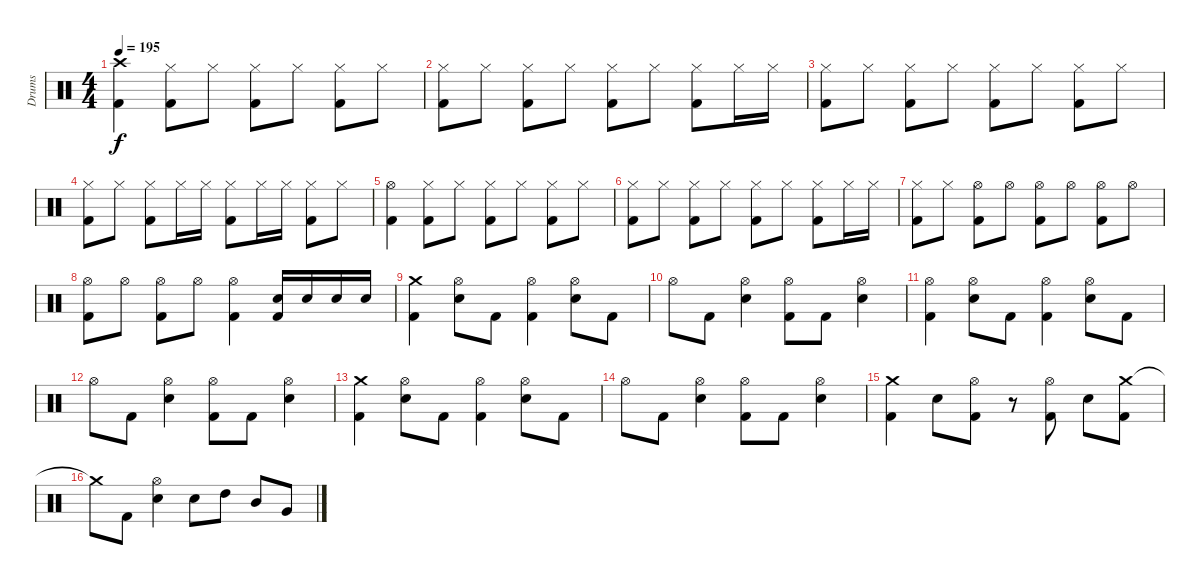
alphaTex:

\track ("Drums" "Drums") {instrument percussion}
\staff {score}
\articulation defaults
\ts (4 4)
\tempo 195
\clef neutral
\ks c
("Crash high (hit)" "Kick (hit) 2").4{dy f} ("Hi-Hat (closed)" "Kick (hit) 2").8 "Hi-Hat (closed)".8 ("Hi-Hat (closed)" "Kick (hit) 2").8 "Hi-Hat (closed)".8 ("Hi-Hat (closed)" "Kick (hit) 2").8 "Hi-Hat (closed)".8 |
("Hi-Hat (closed)" "Kick (hit) 2").8 "Hi-Hat (closed)".8 ("Hi-Hat (closed)" "Kick (hit) 2").8 "Hi-Hat (closed)".8 ("Hi-Hat (closed)" "Kick (hit) 2").8 "Hi-Hat (closed)".8 ("Hi-Hat (closed)" "Kick (hit) 2").8 "Hi-Hat (closed)".16 "Hi-Hat (closed)".16 |
("Hi-Hat (closed)" "Kick (hit) 2").8 "Hi-Hat (closed)".8 ("Hi-Hat (closed)" "Kick (hit) 2").8 "Hi-Hat (closed)".8 ("Hi-Hat (closed)" "Kick (hit) 2").8 "Hi-Hat (closed)".8 ("Hi-Hat (closed)" "Kick (hit) 2").8 "Hi-Hat (closed)".8 |
("Hi-Hat (closed)" "Kick (hit) 2").8 "Hi-Hat (closed)".8 ("Hi-Hat (closed)" "Kick (hit) 2").8 "Hi-Hat (closed)".16 "Hi-Hat (closed)".16 ("Hi-Hat (closed)" "Kick (hit) 2").8 "Hi-Hat (closed)".16 "Hi-Hat (closed)".16 ("Hi-Hat (closed)" "Kick (hit) 2").8 "Hi-Hat (closed)".8 |
("Hi-Hat (open)" "Kick (hit) 2").4 ("Hi-Hat (closed)" "Kick (hit) 2").8 "Hi-Hat (closed)".8 ("Hi-Hat (closed)" "Kick (hit) 2").8 "Hi-Hat (closed)".8 ("Hi-Hat (closed)" "Kick (hit) 2").8 "Hi-Hat (closed)".8 |
("Hi-Hat (closed)" "Kick (hit) 2").8 "Hi-Hat (closed)".8 ("Hi-Hat (closed)" "Kick (hit) 2").8 "Hi-Hat (closed)".8 ("Hi-Hat (closed)" "Kick (hit) 2").8 "Hi-Hat (closed)".8 ("Hi-Hat (closed)" "Kick (hit) 2").8 "Hi-Hat (closed)".16 "Hi-Hat (closed)".16 |
("Hi-Hat (closed)" "Kick (hit) 2").8 "Hi-Hat (closed)".8 ("Hi-Hat (open)" "Kick (hit) 2").8 "Hi-Hat (open)".8 ("Hi-Hat (open)" "Kick (hit) 2").8 "Hi-Hat (open)".8 ("Hi-Hat (open)" "Kick (hit) 2").8 "Hi-Hat (open)".8 |
("Hi-Hat (open)" "Kick (hit) 2").8 "Hi-Hat (open)".8 ("Hi-Hat (open)" "Kick (hit) 2").8 "Hi-Hat (open)".8 ("Hi-Hat (open)" "Kick (hit) 2").4 ("Snare (hit) 2" "Kick (hit) 2").16 "Snare (hit) 2".16 "Snare (hit) 2".16 "Snare (hit) 2".16 |
("Crash medium (hit)" "Kick (hit) 2").4 ("Hi-Hat (open)" "Snare (hit) 2").8 "Kick (hit) 2".8 ("Hi-Hat (open)" "Kick (hit) 2").4 ("Hi-Hat (open)" "Snare (hit) 2").8 "Kick (hit) 2".8 |
"Hi-Hat (open)".8 "Kick (hit) 2".8 ("Hi-Hat (open)" "Snare (hit) 2").4 ("Hi-Hat (open)" "Kick (hit) 2").8 "Kick (hit) 2".8 ("Hi-Hat (open)" "Snare (hit) 2").4 |
("Hi-Hat (open)" "Kick (hit) 2").4 ("Hi-Hat (open)" "Snare (hit) 2").8 "Kick (hit) 2".8 ("Hi-Hat (open)" "Kick (hit) 2").4 ("Hi-Hat (open)" "Snare (hit) 2").8 "Kick (hit) 2".8 |
"Hi-Hat (open)".8 "Kick (hit) 2".8 ("Hi-Hat (open)" "Snare (hit) 2").4 ("Hi-Hat (open)" "Kick (hit) 2").8 "Kick (hit) 2".8 ("Hi-Hat (open)" "Snare (hit) 2").4 |
("Crash medium (hit)" "Kick (hit) 2").4 ("Hi-Hat (open)" "Snare (hit) 2").8 "Kick (hit) 2".8 ("Hi-Hat (open)" "Kick (hit) 2").4 ("Hi-Hat (open)" "Snare (hit) 2").8 "Kick (hit) 2".8 |
"Hi-Hat (open)".8 "Kick (hit) 2".8 ("Hi-Hat (open)" "Snare (hit) 2").4 ("Hi-Hat (open)" "Kick (hit) 2").8 "Kick (hit) 2".8 ("Hi-Hat (open)" "Snare (hit) 2").4 |
("Crash medium (hit)" "Kick (hit) 2").4 "Snare (hit) 2".8 ("Hi-Hat (open)" "Kick (hit) 2").8 r.8 ("Hi-Hat (open)" "Kick (hit) 2").8 "Snare (hit) 2".8 ("Crash medium (hit)" "Kick (hit) 2").8 |
"Crash medium (hit)"{t}.8 "Kick (hit) 2".8 ("Hi-Hat (open)" "Snare (hit) 2").4 "Snare (hit) 2".8 "High Tom (hit)".8 "Mid Tom (hit)".8 "Very Low Tom (hit)".8
